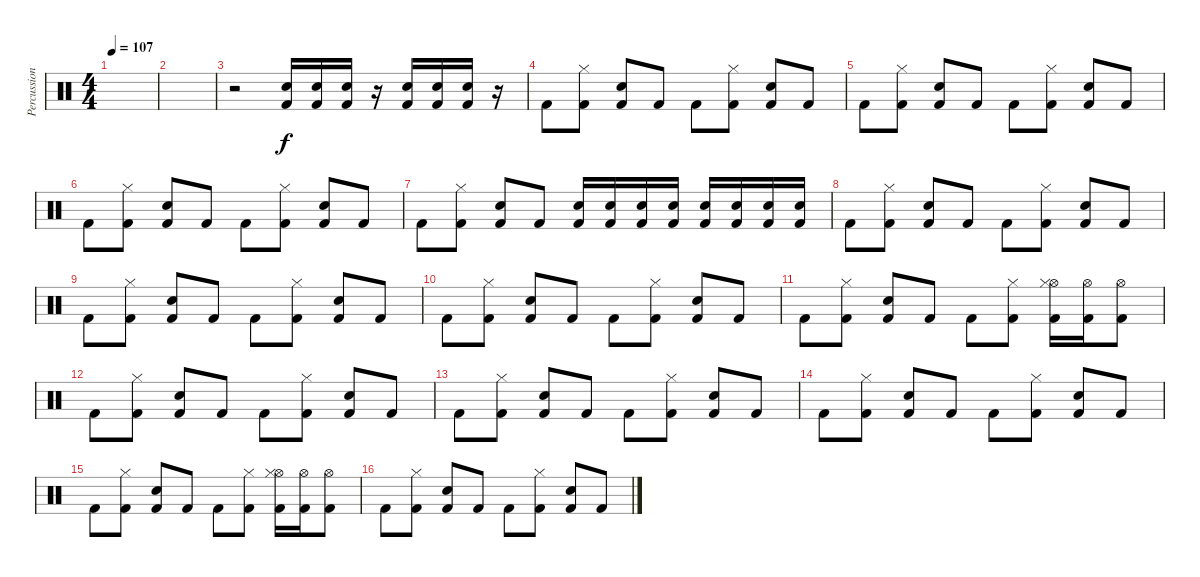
\track ("Percussion" "Percussion") {instrument percussion}
\staff {score}
\articulation defaults
\ts (4 4)
\tempo 107
\tempo 106
\tempo 107
\clef neutral
\ks c
|
|
r.2 ("Kick (hit) 2" "Snare (hit) 2").16 ("Kick (hit) 2" "Snare (hit) 2").16 ("Kick (hit) 2" "Snare (hit) 2").16 r.16 ("Kick (hit) 2" "Snare (hit) 2").16 ("Kick (hit) 2" "Snare (hit) 2").16 ("Kick (hit) 2" "Snare (hit) 2").16 r.16 |
"Kick (hit) 2".8 ("Kick (hit) 2" "Hi-Hat (closed)").8 ("Snare (hit) 2" "Kick (hit) 2").8 "Kick (hit) 2".8 "Kick (hit) 2".8 ("Kick (hit) 2" "Hi-Hat (closed)").8 ("Snare (hit) 2" "Kick (hit) 2").8 "Kick (hit) 2".8 |
"Kick (hit) 2".8 ("Kick (hit) 2" "Hi-Hat (closed)").8 ("Snare (hit) 2" "Kick (hit) 2").8 "Kick (hit) 2".8 "Kick (hit) 2".8 ("Kick (hit) 2" "Hi-Hat (closed)").8 ("Snare (hit) 2" "Kick (hit) 2").8 "Kick (hit) 2".8 |
"Kick (hit) 2".8 ("Kick (hit) 2" "Hi-Hat (closed)").8 ("Snare (hit) 2" "Kick (hit) 2").8 "Kick (hit) 2".8 "Kick (hit) 2".8 ("Kick (hit) 2" "Hi-Hat (closed)").8 ("Snare (hit) 2" "Kick (hit) 2").8 "Kick (hit) 2".8 |
"Kick (hit) 2".8 ("Kick (hit) 2" "Hi-Hat (closed)").8 ("Snare (hit) 2" "Kick (hit) 2").8 "Kick (hit) 2".8 ("Snare (hit) 2" "Kick (hit) 2").16 ("Snare (hit) 2" "Kick (hit) 2").16 ("Snare (hit) 2" "Kick (hit) 2").16 ("Snare (hit) 2" "Kick (hit) 2").16 ("Snare (hit) 2" "Kick (hit) 2").16 ("Snare (hit) 2" "Kick (hit) 2").16 ("Snare (hit) 2" "Kick (hit) 2").16 ("Snare (hit) 2" "Kick (hit) 2").16 |
"Kick (hit) 2".8 ("Kick (hit) 2" "Hi-Hat (closed)").8 ("Snare (hit) 2" "Kick (hit) 2").8 "Kick (hit) 2".8 "Kick (hit) 2".8 ("Kick (hit) 2" "Hi-Hat (closed)").8 ("Snare (hit) 2" "Kick (hit) 2").8 "Kick (hit) 2".8 |
"Kick (hit) 2".8 ("Kick (hit) 2" "Hi-Hat (closed)").8 ("Snare (hit) 2" "Kick (hit) 2").8 "Kick (hit) 2".8 "Kick (hit) 2".8 ("Kick (hit) 2" "Hi-Hat (closed)").8 ("Snare (hit) 2" "Kick (hit) 2").8 "Kick (hit) 2".8 |
"Kick (hit) 2".8 ("Kick (hit) 2" "Hi-Hat (closed)").8 ("Snare (hit) 2" "Kick (hit) 2").8 "Kick (hit) 2".8 "Kick (hit) 2".8 ("Kick (hit) 2" "Hi-Hat (closed)").8 ("Snare (hit) 2" "Kick (hit) 2").8 "Kick (hit) 2".8 |
"Kick (hit) 2".8 ("Kick (hit) 2" "Hi-Hat (closed)").8 ("Snare (hit) 2" "Kick (hit) 2").8 "Kick (hit) 2".8 "Kick (hit) 2".8 ("Kick (hit) 2" "Hi-Hat (closed)").8 ("Hi-Hat (open)" "Kick (hit) 2" "Hi-Hat (closed)").16 ("Hi-Hat (open)" "Kick (hit) 2").16 ("Kick (hit) 2" "Hi-Hat (open)").8 |
"Kick (hit) 2".8 ("Kick (hit) 2" "Hi-Hat (closed)").8 ("Snare (hit) 2" "Kick (hit) 2").8 "Kick (hit) 2".8 "Kick (hit) 2".8 ("Kick (hit) 2" "Hi-Hat (closed)").8 ("Snare (hit) 2" "Kick (hit) 2").8 "Kick (hit) 2".8 |
"Kick (hit) 2".8 ("Kick (hit) 2" "Hi-Hat (closed)").8 ("Snare (hit) 2" "Kick (hit) 2").8 "Kick (hit) 2".8 "Kick (hit) 2".8 ("Kick (hit) 2" "Hi-Hat (closed)").8 ("Snare (hit) 2" "Kick (hit) 2").8 "Kick (hit) 2".8 |
"Kick (hit) 2".8 ("Kick (hit) 2" "Hi-Hat (closed)").8 ("Snare (hit) 2" "Kick (hit) 2").8 "Kick (hit) 2".8 "Kick (hit) 2".8 ("Kick (hit) 2" "Hi-Hat (closed)").8 ("Snare (hit) 2" "Kick (hit) 2").8 "Kick (hit) 2".8 |
"Kick (hit) 2".8 ("Kick (hit) 2" "Hi-Hat (closed)").8 ("Snare (hit) 2" "Kick (hit) 2").8 "Kick (hit) 2".8 "Kick (hit) 2".8 ("Kick (hit) 2" "Hi-Hat (closed)").8 ("Hi-Hat (open)" "Kick (hit) 2" "Hi-Hat (closed)").16 ("Hi-Hat (open)" "Kick (hit) 2").16 ("Kick (hit) 2" "Hi-Hat (open)").8 |
"Kick (hit) 2".8 ("Kick (hit) 2" "Hi-Hat (closed)").8 ("Snare (hit) 2" "Kick (hit) 2").8 "Kick (hit) 2".8 "Kick (hit) 2".8 ("Kick (hit) 2" "Hi-Hat (closed)").8 ("Snare (hit) 2" "Kick (hit) 2").8 "Kick (hit) 2".8
